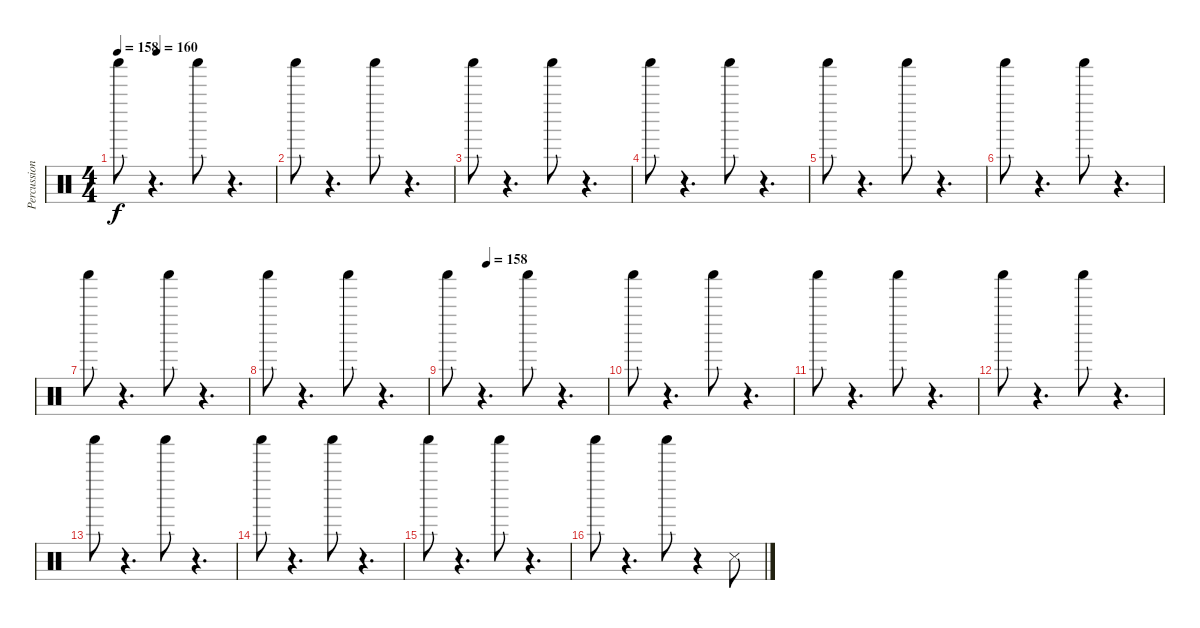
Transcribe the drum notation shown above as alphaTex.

\track ("Percussions" "Percussion") {instrument percussion}
\staff {score}
\articulation defaults
\ts (4 4)
\tempo 158
\tempo (160 0.25)
\clef neutral
\ks c "Shaker (hit)".8{dy f}
r.4{d} "Shaker (hit)".8 r.4{d} |
"Shaker (hit)".8 r.4{d} "Shaker (hit)".8 r.4{d} |
"Shaker (hit)".8 r.4{d} "Shaker (hit)".8 r.4{d} |
"Shaker (hit)".8 r.4{d} "Shaker (hit)".8 r.4{d} |
"Shaker (hit)".8 r.4{d} "Shaker (hit)".8 r.4{d} |
"Shaker (hit)".8 r.4{d} "Shaker (hit)".8 r.4{d} |
"Shaker (hit)".8 r.4{d} "Shaker (hit)".8 r.4{d} |
"Shaker (hit)".8 r.4{d} "Shaker (hit)".8 r.4{d} |
\tempo (158 0.25)
"Shaker (hit)".8 r.4{d} "Shaker (hit)".8 r.4{d} |
"Shaker (hit)".8 r.4{d} "Shaker (hit)".8 r.4{d} |
"Shaker (hit)".8 r.4{d} "Shaker (hit)".8 r.4{d} |
"Shaker (hit)".8 r.4{d} "Shaker (hit)".8 r.4{d} |
"Shaker (hit)".8 r.4{d} "Shaker (hit)".8 r.4{d} |
"Shaker (hit)".8 r.4{d} "Shaker (hit)".8 r.4{d} |
"Shaker (hit)".8 r.4{d} "Shaker (hit)".8 r.4{d} |
"Shaker (hit)".8 r.4{d} "Shaker (hit)".8 r.4 "Snare (side stick) 3".8
